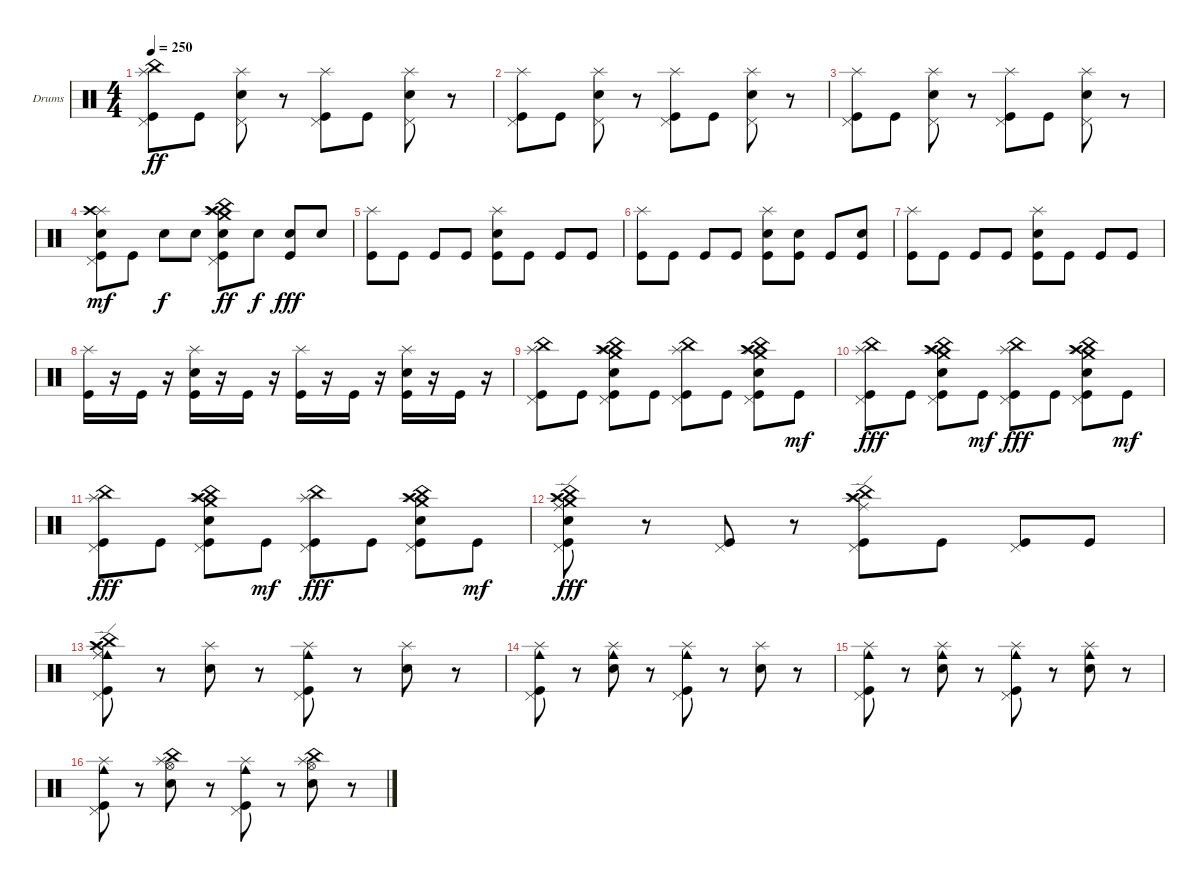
\defaultSystemsLayout 4
\bracketExtendMode groupsimilarinstruments
\firstSystemTrackNameOrientation horizontal
\otherSystemsTrackNameOrientation horizontal
\track ("Драмки" "Drums") {instrument percussion}
\staff {score}
\articulation defaults
\ts (4 4)
\tempo 250
\clef neutral
\ks c
("Splash (hit)" "Kick (hit)" "China (hit)" "Pedal Hi-Hat (hit)").8{dy ff} "Kick (hit)".8 ("Snare (hit) 2" "Splash (hit)" "Pedal Hi-Hat (hit)").8 r.8 ("Kick (hit)" "Splash (hit)" "Pedal Hi-Hat (hit)").8 "Kick (hit)".8 ("Snare (hit) 2" "Splash (hit)" "Pedal Hi-Hat (hit)").8 r.8 |
("Kick (hit)" "Splash (hit)" "Pedal Hi-Hat (hit)").8 "Kick (hit)".8 ("Snare (hit) 2" "Splash (hit)" "Pedal Hi-Hat (hit)").8 r.8 ("Kick (hit)" "Splash (hit)" "Pedal Hi-Hat (hit)").8 "Kick (hit)".8 ("Snare (hit) 2" "Splash (hit)" "Pedal Hi-Hat (hit)").8 r.8 |
("Kick (hit)" "Splash (hit)" "Pedal Hi-Hat (hit)").8 "Kick (hit)".8 ("Snare (hit) 2" "Splash (hit)" "Pedal Hi-Hat (hit)").8 r.8 ("Kick (hit)" "Splash (hit)" "Pedal Hi-Hat (hit)").8 "Kick (hit)".8 ("Snare (hit) 2" "Splash (hit)" "Pedal Hi-Hat (hit)").8 r.8 |
("Snare (hit) 2" "Splash (hit)" "Pedal Hi-Hat (hit)" "Crash high (hit)" "Kick (hit)").8{dy mf} "Kick (hit)".8 "Snare (hit) 2".8{dy f} "Snare (hit) 2".8 ("Snare (hit) 2" "Splash (hit)" "Pedal Hi-Hat (hit)" "Crash medium (hit)" "Crash high (hit)" "China (hit)" "Kick (hit)").8{dy ff} "Snare (hit) 2".8{dy f} ("Snare (hit) 2" "Kick (hit)").8{dy fff} "Snare (hit) 2".8 |
("Kick (hit)" "Splash (hit)").8 "Kick (hit)".8 "Kick (hit)".8 "Kick (hit)".8 ("Kick (hit)" "Splash (hit)" "Snare (hit) 2").8 "Kick (hit)".8 "Kick (hit)".8 "Kick (hit)".8 |
("Kick (hit)" "Splash (hit)").8 "Kick (hit)".8 "Kick (hit)".8 "Kick (hit)".8 ("Kick (hit)" "Splash (hit)" "Snare (hit) 2").8 ("Kick (hit)" "Snare (hit) 2").8 "Kick (hit)".8 ("Kick (hit)" "Snare (hit) 2").8 |
("Kick (hit)" "Splash (hit)").8 "Kick (hit)".8 "Kick (hit)".8 "Kick (hit)".8 ("Kick (hit)" "Snare (hit) 2" "Splash (hit)").8 "Kick (hit)".8 "Kick (hit)".8 "Kick (hit)".8 |
("Kick (hit)" "Splash (hit)").16 r.16 "Kick (hit)".16 r.16 ("Kick (hit)" "Snare (hit) 2" "Splash (hit)").16 r.16 "Kick (hit)".16 r.16 ("Kick (hit)" "Splash (hit)").16 r.16 "Kick (hit)".16 r.16 ("Kick (hit)" "Splash (hit)" "Snare (hit) 2").16 r.16 "Kick (hit)".16 r.16 |
("Splash (hit)" "China (hit)" "Pedal Hi-Hat (hit)" "Kick (hit)").8 "Kick (hit)".8 ("Snare (hit) 2" "Splash (hit)" "Pedal Hi-Hat (hit)" "China (hit)" "Crash high (hit)" "Crash medium (hit)" "Kick (hit)").8 "Kick (hit)".8 ("Splash (hit)" "China (hit)" "Kick (hit)" "Pedal Hi-Hat (hit)").8 "Kick (hit)".8 ("Snare (hit) 2" "Splash (hit)" "Pedal Hi-Hat (hit)" "China (hit)" "Crash high (hit)" "Crash medium (hit)" "Kick (hit)").8 "Kick (hit)".8{dy mf} |
("Kick (hit)" "Splash (hit)" "China (hit)" "Pedal Hi-Hat (hit)").8{dy fff} "Kick (hit)".8 ("Snare (hit) 2" "Splash (hit)" "Pedal Hi-Hat (hit)" "China (hit)" "Crash high (hit)" "Crash medium (hit)" "Kick (hit)").8 "Kick (hit)".8{dy mf} ("Kick (hit)" "Pedal Hi-Hat (hit)" "Splash (hit)" "China (hit)").8{dy fff} "Kick (hit)".8 ("Pedal Hi-Hat (hit)" "Crash medium (hit)" "Splash (hit)" "Crash high (hit)" "China (hit)" "Snare (hit) 2" "Kick (hit)").8 "Kick (hit)".8{dy mf} |
("Kick (hit)" "Splash (hit)" "China (hit)" "Pedal Hi-Hat (hit)").8{dy fff} "Kick (hit)".8 ("Snare (hit) 2" "Splash (hit)" "Pedal Hi-Hat (hit)" "China (hit)" "Crash high (hit)" "Crash medium (hit)" "Kick (hit)").8 "Kick (hit)".8{dy mf} ("Kick (hit)" "Pedal Hi-Hat (hit)" "Splash (hit)" "China (hit)").8{dy fff} "Kick (hit)".8 ("Pedal Hi-Hat (hit)" "Crash medium (hit)" "Splash (hit)" "Crash high (hit)" "China (hit)" "Snare (hit) 2" "Kick (hit)").8 "Kick (hit)".8{dy mf} |
("Kick (hit)" "Snare (hit) 2" "Splash (hit)" "China (hit)" "Crash high (hit)" "Crash medium (hit)" "Ride (edge)" "Pedal Hi-Hat (hit)").8{dy fff} r.8 ("Kick (hit)" "Pedal Hi-Hat (hit)").8 r.8 ("Pedal Hi-Hat (hit)" "Kick (hit)" "Splash (hit)" "China (hit)" "Crash high (hit)" "Ride (edge)").8 "Kick (hit)".8 ("Pedal Hi-Hat (hit)" "Kick (hit)").8 "Kick (hit)".8 |
("Kick (hit)" "Cowbell medium (hit)" "China (hit)" "Splash (hit)" "Crash high (hit)" "Ride (edge)" "Pedal Hi-Hat (hit)").8 r.8 ("Snare (hit) 2" "Splash (hit)").8 r.8 ("Kick (hit)" "Cowbell medium (hit)" "Pedal Hi-Hat (hit)" "Splash (hit)").8 r.8 ("Snare (hit) 2" "Splash (hit)").8 r.8 |
("Cowbell medium (hit)" "Kick (hit)" "Pedal Hi-Hat (hit)" "Splash (hit)").8 r.8 ("Cowbell medium (hit)" "Snare (hit) 2" "Splash (hit)").8 r.8 ("Cowbell medium (hit)" "Kick (hit)" "Pedal Hi-Hat (hit)" "Splash (hit)").8 r.8 ("Snare (hit) 2" "Splash (hit)").8 r.8 |
("Cowbell medium (hit)" "Kick (hit)" "Pedal Hi-Hat (hit)" "Splash (hit)").8 r.8 ("Cowbell medium (hit)" "Snare (hit) 2" "Splash (hit)").8 r.8 ("Cowbell medium (hit)" "Kick (hit)" "Pedal Hi-Hat (hit)" "Splash (hit)").8 r.8 ("Cowbell medium (hit)" "Snare (hit) 2" "Splash (hit)").8 r.8 |
("Cowbell medium (hit)" "Kick (hit)" "Pedal Hi-Hat (hit)" "Splash (hit)").8 r.8 ("Snare (hit) 2" "Hi-Hat (open)" "Splash (hit)" "China (hit)").8 r.8 ("Cowbell medium (hit)" "Kick (hit)" "Pedal Hi-Hat (hit)" "Splash (hit)").8 r.8 ("Snare (hit) 2" "Hi-Hat (open)" "Splash (hit)" "China (hit)").8 r.8
